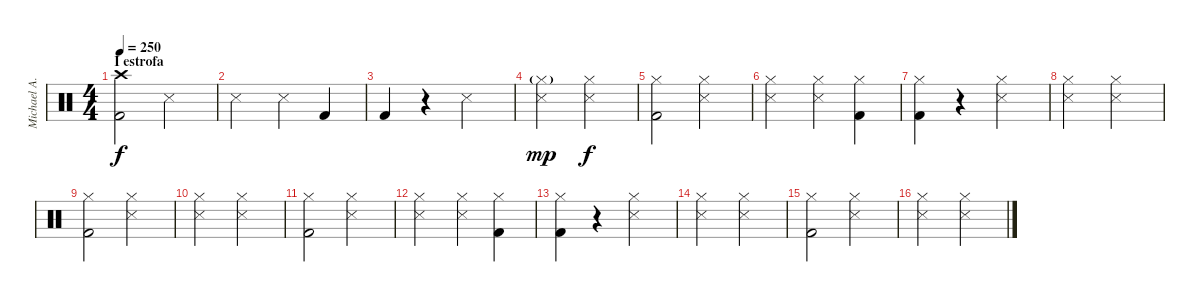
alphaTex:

\track ("Michael A." "Michael A.") {instrument percussion}
\staff {score}
\articulation defaults
\ts (4 4)
\section ("" "I estrofa")
\tempo 250
\clef neutral
\ks c
("Crash high (hit)" "Kick (hit) 2").2{dy f} "Snare (side stick) 3".2 |
"Snare (side stick) 3".2 "Snare (side stick) 3".4 "Kick (hit) 2".4 |
"Kick (hit) 2".4 r.4 "Snare (side stick) 3".2 |
("Hi-Hat (closed)"{g} "Snare (side stick) 3").2{dy mp} ("Hi-Hat (closed)" "Snare (side stick) 3").2{dy f} |
("Hi-Hat (closed)" "Kick (hit) 2").2 ("Hi-Hat (closed)" "Snare (side stick) 3").2 |
("Hi-Hat (closed)" "Snare (side stick) 3").2 ("Hi-Hat (closed)" "Snare (side stick) 3").4 ("Hi-Hat (closed)" "Kick (hit) 2").4 |
("Hi-Hat (closed)" "Kick (hit) 2").4 r.4 ("Hi-Hat (closed)" "Snare (side stick) 3").2 |
("Hi-Hat (closed)" "Snare (side stick) 3").2 ("Hi-Hat (closed)" "Snare (side stick) 3").2 |
("Hi-Hat (closed)" "Kick (hit) 2").2 ("Hi-Hat (closed)" "Snare (side stick) 3").2 |
("Hi-Hat (closed)" "Snare (side stick) 3").2 ("Hi-Hat (closed)" "Snare (side stick) 3").2 |
("Hi-Hat (closed)" "Kick (hit) 2").2 ("Hi-Hat (closed)" "Snare (side stick) 3").2 |
("Hi-Hat (closed)" "Snare (side stick) 3").2 ("Hi-Hat (closed)" "Snare (side stick) 3").4 ("Hi-Hat (closed)" "Kick (hit) 2").4 |
("Hi-Hat (closed)" "Kick (hit) 2").4 r.4 ("Hi-Hat (closed)" "Snare (side stick) 3").2 |
("Hi-Hat (closed)" "Snare (side stick) 3").2 ("Hi-Hat (closed)" "Snare (side stick) 3").2 |
("Hi-Hat (closed)" "Kick (hit) 2").2 ("Hi-Hat (closed)" "Snare (side stick) 3").2 |
("Hi-Hat (closed)" "Snare (side stick) 3").2 ("Hi-Hat (closed)" "Snare (side stick) 3").2
